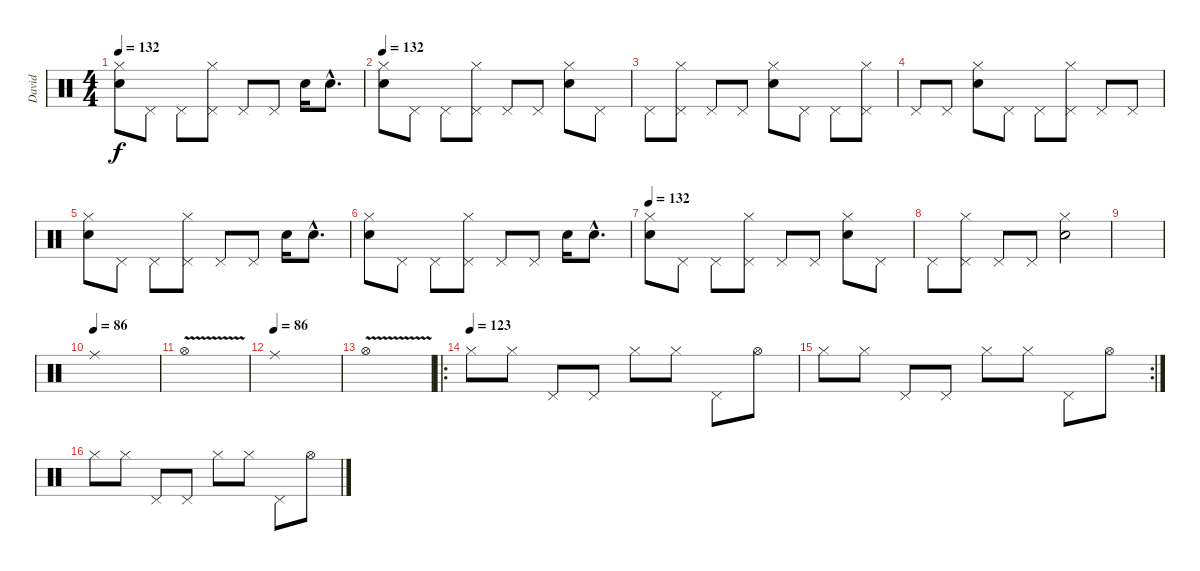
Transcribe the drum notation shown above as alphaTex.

\track ("David" "David") {instrument percussion}
\staff {score}
\articulation defaults
\ts (4 4)
\tempo 132
\clef neutral
\ks c
("Hi-Hat (closed)" "Electric Snare (hit)").8{dy f} "Pedal Hi-Hat (hit)".8 "Pedal Hi-Hat (hit)".8 ("Hi-Hat (closed)" "Pedal Hi-Hat (hit)").8 "Pedal Hi-Hat (hit)".8 "Pedal Hi-Hat (hit)".8 "Snare (hit) 2".16 "Snare (hit) 2"{hac}.8{d} |
\tempo 132
("Hi-Hat (closed)" "Electric Snare (hit)").8 "Pedal Hi-Hat (hit)".8 "Pedal Hi-Hat (hit)".8 ("Hi-Hat (closed)" "Pedal Hi-Hat (hit)").8 "Pedal Hi-Hat (hit)".8 "Pedal Hi-Hat (hit)".8 ("Hi-Hat (closed)" "Electric Snare (hit)").8 "Pedal Hi-Hat (hit)".8 |
"Pedal Hi-Hat (hit)".8 ("Hi-Hat (closed)" "Pedal Hi-Hat (hit)").8 "Pedal Hi-Hat (hit)".8 "Pedal Hi-Hat (hit)".8 ("Hi-Hat (closed)" "Electric Snare (hit)").8 "Pedal Hi-Hat (hit)".8 "Pedal Hi-Hat (hit)".8 ("Hi-Hat (closed)" "Pedal Hi-Hat (hit)").8 |
"Pedal Hi-Hat (hit)".8 "Pedal Hi-Hat (hit)".8 ("Hi-Hat (closed)" "Electric Snare (hit)").8 "Pedal Hi-Hat (hit)".8 "Pedal Hi-Hat (hit)".8 ("Hi-Hat (closed)" "Pedal Hi-Hat (hit)").8 "Pedal Hi-Hat (hit)".8 "Pedal Hi-Hat (hit)".8 |
("Hi-Hat (closed)" "Electric Snare (hit)").8 "Pedal Hi-Hat (hit)".8 "Pedal Hi-Hat (hit)".8 ("Hi-Hat (closed)" "Pedal Hi-Hat (hit)").8 "Pedal Hi-Hat (hit)".8 "Pedal Hi-Hat (hit)".8 "Snare (hit) 2".16 "Snare (hit) 2"{hac}.8{d} |
("Hi-Hat (closed)" "Electric Snare (hit)").8 "Pedal Hi-Hat (hit)".8 "Pedal Hi-Hat (hit)".8 ("Hi-Hat (closed)" "Pedal Hi-Hat (hit)").8 "Pedal Hi-Hat (hit)".8 "Pedal Hi-Hat (hit)".8 "Snare (hit) 2".16 "Snare (hit) 2"{hac}.8{d} |
\tempo 132
("Hi-Hat (closed)" "Electric Snare (hit)").8 "Pedal Hi-Hat (hit)".8 "Pedal Hi-Hat (hit)".8 ("Hi-Hat (closed)" "Pedal Hi-Hat (hit)").8 "Pedal Hi-Hat (hit)".8 "Pedal Hi-Hat (hit)".8 ("Hi-Hat (closed)" "Electric Snare (hit)").8 "Pedal Hi-Hat (hit)".8 |
"Pedal Hi-Hat (hit)".8 ("Hi-Hat (closed)" "Pedal Hi-Hat (hit)").8 "Pedal Hi-Hat (hit)".8 "Pedal Hi-Hat (hit)".8 ("Hi-Hat (closed)" "Electric Snare (hit)").2 |
|
\tempo (86)
"Ride (middle)".1 |
"Hi-Hat (open)"{v}.1 |
\tempo (86)
"Ride (middle)".1 |
"Hi-Hat (open)"{v}.1 |
\ro
\tempo (123)
"Hi-Hat (closed)".8 "Hi-Hat (closed)".8 "Pedal Hi-Hat (hit)".8 "Pedal Hi-Hat (hit)".8 "Hi-Hat (closed)".8 "Hi-Hat (closed)".8 "Pedal Hi-Hat (hit)".8 "Hi-Hat (open)".8 |
\rc 2 "Hi-Hat (closed)".8 "Hi-Hat (closed)".8 "Pedal Hi-Hat (hit)".8 "Pedal Hi-Hat (hit)".8 "Hi-Hat (closed)".8 "Hi-Hat (closed)".8 "Pedal Hi-Hat (hit)".8 "Hi-Hat (open)".8
|
"Hi-Hat (closed)".8 "Hi-Hat (closed)".8 "Pedal Hi-Hat (hit)".8 "Pedal Hi-Hat (hit)".8 "Hi-Hat (closed)".8 "Hi-Hat (closed)".8 "Pedal Hi-Hat (hit)".8 "Hi-Hat (open)".8
